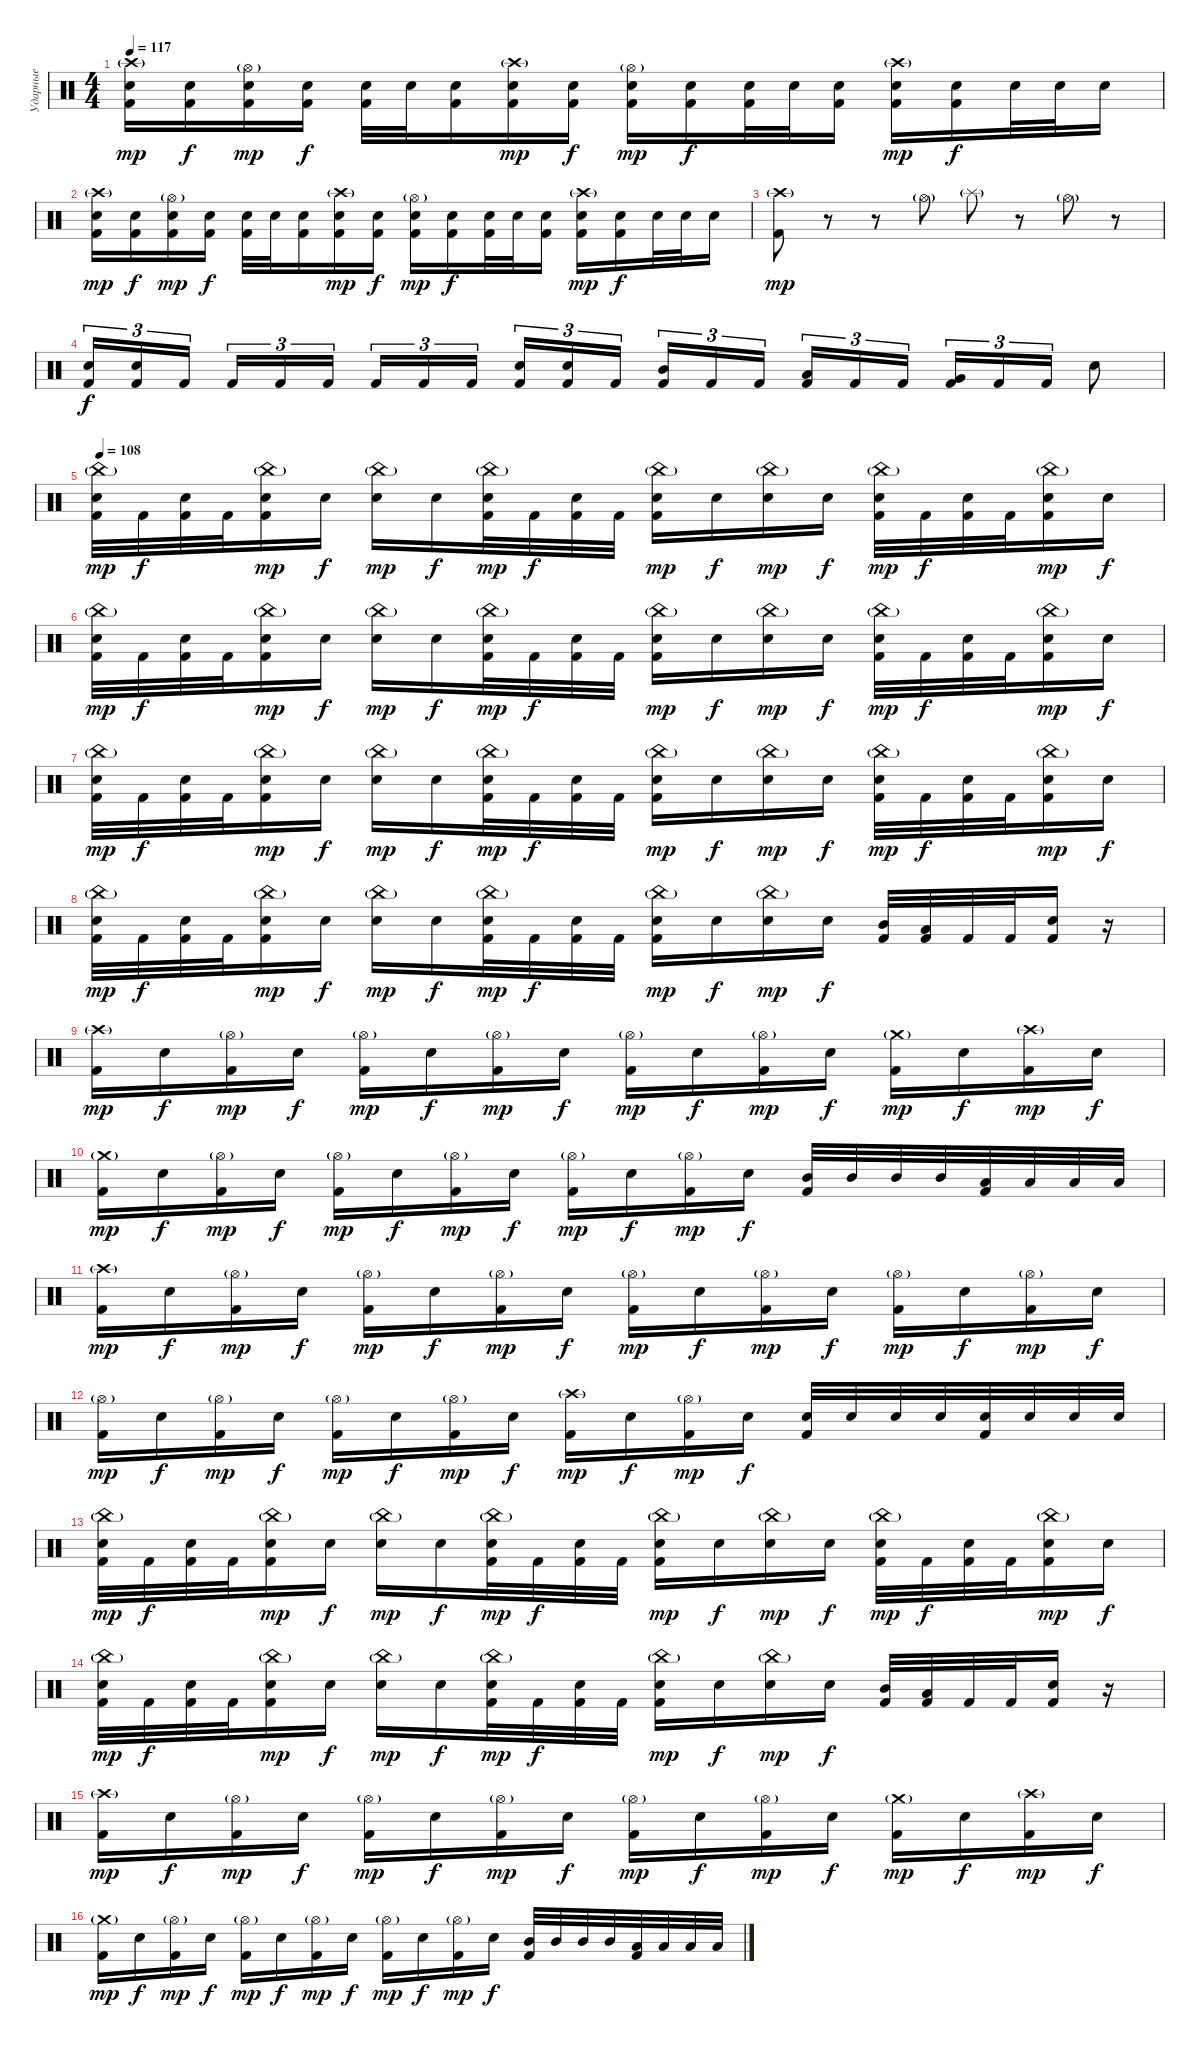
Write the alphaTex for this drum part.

\track ("Ударные" "Ударные") {instrument percussion}
\staff {score}
\articulation defaults
\ts (4 4)
\tempo 117
\clef neutral
\ks c
("Crash high (hit)"{g} "Electric Snare (hit)" "Kick (hit) 2").16{dy mp} ("Electric Snare (hit)" "Kick (hit) 2").16{dy f} ("Hi-Hat (open)"{g} "Electric Snare (hit)" "Kick (hit) 2").16{dy mp} ("Electric Snare (hit)" "Kick (hit) 2").16{dy f} ("Electric Snare (hit)" "Kick (hit) 2").32 "Electric Snare (hit)".32 ("Electric Snare (hit)" "Kick (hit) 2").16 ("Crash high (hit)"{g} "Electric Snare (hit)" "Kick (hit) 2").16{dy mp} ("Electric Snare (hit)" "Kick (hit) 2").16{dy f} ("Hi-Hat (open)"{g} "Electric Snare (hit)" "Kick (hit) 2").16{dy mp} ("Electric Snare (hit)" "Kick (hit) 2").16{dy f} ("Electric Snare (hit)" "Kick (hit) 2").32 "Electric Snare (hit)".32 ("Electric Snare (hit)" "Kick (hit) 2").16 ("Crash high (hit)"{g} "Electric Snare (hit)" "Kick (hit) 2").16{dy mp} ("Electric Snare (hit)" "Kick (hit) 2").16{dy f} "Electric Snare (hit)".32 "Electric Snare (hit)".32 "Electric Snare (hit)".16 |
("Crash high (hit)"{g} "Electric Snare (hit)" "Kick (hit) 2").16{dy mp} ("Electric Snare (hit)" "Kick (hit) 2").16{dy f} ("Hi-Hat (open)"{g} "Electric Snare (hit)" "Kick (hit) 2").16{dy mp} ("Electric Snare (hit)" "Kick (hit) 2").16{dy f} ("Electric Snare (hit)" "Kick (hit) 2").32 "Electric Snare (hit)".32 ("Electric Snare (hit)" "Kick (hit) 2").16 ("Crash high (hit)"{g} "Electric Snare (hit)" "Kick (hit) 2").16{dy mp} ("Electric Snare (hit)" "Kick (hit) 2").16{dy f} ("Hi-Hat (open)"{g} "Electric Snare (hit)" "Kick (hit) 2").16{dy mp} ("Electric Snare (hit)" "Kick (hit) 2").16{dy f} ("Electric Snare (hit)" "Kick (hit) 2").32 "Electric Snare (hit)".32 ("Electric Snare (hit)" "Kick (hit) 2").16 ("Crash high (hit)"{g} "Electric Snare (hit)" "Kick (hit) 2").16{dy mp} ("Electric Snare (hit)" "Kick (hit) 2").16{dy f} "Electric Snare (hit)".32 "Electric Snare (hit)".32 "Electric Snare (hit)".16 |
("Crash high (hit)"{g} "Kick (hit) 2").8{dy mp} r.8{volume 0} r.8 "Hi-Hat (open)"{g}.8{volume 16} "Splash (hit)"{g}.8 r.8 "Hi-Hat (open)"{g}.8 r.8 |
("Electric Snare (hit)" "Kick (hit) 2").16{tu (3 2) dy f} ("Electric Snare (hit)" "Kick (hit) 2").16{tu (3 2)} "Kick (hit) 2".16{tu (3 2)} "Kick (hit) 2".16{tu (3 2)} "Kick (hit) 2".16{tu (3 2)} "Kick (hit) 2".16{tu (3 2)} "Kick (hit) 2".16{tu (3 2)} "Kick (hit) 2".16{tu (3 2)} "Kick (hit) 2".16{tu (3 2)} ("Electric Snare (hit)" "Kick (hit) 2").16{tu (3 2)} ("Electric Snare (hit)" "Kick (hit) 2").16{tu (3 2)} "Kick (hit) 2".16{tu (3 2)} ("Mid Tom (hit)" "Kick (hit) 2").16{tu (3 2)} "Kick (hit) 2".16{tu (3 2)} "Kick (hit) 2".16{tu (3 2)} ("Low Tom (hit)" "Kick (hit) 2").16{tu (3 2)} "Kick (hit) 2".16{tu (3 2)} "Kick (hit) 2".16{tu (3 2)} ("Very Low Tom (hit)" "Kick (hit) 2").16{tu (3 2)} "Kick (hit) 2".16{tu (3 2)} "Kick (hit) 2".16{tu (3 2)} "Electric Snare (hit)".8 |
\tempo 108
("China (hit)"{g} "Electric Snare (hit)" "Kick (hit) 2").32{dy mp} "Kick (hit) 2".32{dy f} ("Electric Snare (hit)" "Kick (hit) 2").32 "Kick (hit) 2".32 ("China (hit)"{g} "Electric Snare (hit)" "Kick (hit) 2").16{dy mp} "Electric Snare (hit)".16{dy f} ("China (hit)"{g} "Electric Snare (hit)").16{dy mp} "Electric Snare (hit)".16{dy f} ("China (hit)"{g} "Electric Snare (hit)" "Kick (hit) 2").32{dy mp} "Kick (hit) 2".32{dy f} ("Electric Snare (hit)" "Kick (hit) 2").32 "Kick (hit) 2".32 ("China (hit)"{g} "Electric Snare (hit)" "Kick (hit) 2").16{dy mp} "Electric Snare (hit)".16{dy f} ("China (hit)"{g} "Electric Snare (hit)").16{dy mp} "Electric Snare (hit)".16{dy f} ("China (hit)"{g} "Electric Snare (hit)" "Kick (hit) 2").32{dy mp} "Kick (hit) 2".32{dy f} ("Electric Snare (hit)" "Kick (hit) 2").32 "Kick (hit) 2".32 ("China (hit)"{g} "Electric Snare (hit)" "Kick (hit) 2").16{dy mp} "Electric Snare (hit)".16{dy f} |
("China (hit)"{g} "Electric Snare (hit)" "Kick (hit) 2").32{dy mp} "Kick (hit) 2".32{dy f} ("Electric Snare (hit)" "Kick (hit) 2").32 "Kick (hit) 2".32 ("China (hit)"{g} "Electric Snare (hit)" "Kick (hit) 2").16{dy mp} "Electric Snare (hit)".16{dy f} ("China (hit)"{g} "Electric Snare (hit)").16{dy mp} "Electric Snare (hit)".16{dy f} ("China (hit)"{g} "Electric Snare (hit)" "Kick (hit) 2").32{dy mp} "Kick (hit) 2".32{dy f} ("Electric Snare (hit)" "Kick (hit) 2").32 "Kick (hit) 2".32 ("China (hit)"{g} "Electric Snare (hit)" "Kick (hit) 2").16{dy mp} "Electric Snare (hit)".16{dy f} ("China (hit)"{g} "Electric Snare (hit)").16{dy mp} "Electric Snare (hit)".16{dy f} ("China (hit)"{g} "Electric Snare (hit)" "Kick (hit) 2").32{dy mp} "Kick (hit) 2".32{dy f} ("Electric Snare (hit)" "Kick (hit) 2").32 "Kick (hit) 2".32 ("China (hit)"{g} "Electric Snare (hit)" "Kick (hit) 2").16{dy mp} "Electric Snare (hit)".16{dy f} |
("China (hit)"{g} "Electric Snare (hit)" "Kick (hit) 2").32{dy mp} "Kick (hit) 2".32{dy f} ("Electric Snare (hit)" "Kick (hit) 2").32 "Kick (hit) 2".32 ("China (hit)"{g} "Electric Snare (hit)" "Kick (hit) 2").16{dy mp} "Electric Snare (hit)".16{dy f} ("China (hit)"{g} "Electric Snare (hit)").16{dy mp} "Electric Snare (hit)".16{dy f} ("China (hit)"{g} "Electric Snare (hit)" "Kick (hit) 2").32{dy mp} "Kick (hit) 2".32{dy f} ("Electric Snare (hit)" "Kick (hit) 2").32 "Kick (hit) 2".32 ("China (hit)"{g} "Electric Snare (hit)" "Kick (hit) 2").16{dy mp} "Electric Snare (hit)".16{dy f} ("China (hit)"{g} "Electric Snare (hit)").16{dy mp} "Electric Snare (hit)".16{dy f} ("China (hit)"{g} "Electric Snare (hit)" "Kick (hit) 2").32{dy mp} "Kick (hit) 2".32{dy f} ("Electric Snare (hit)" "Kick (hit) 2").32 "Kick (hit) 2".32 ("China (hit)"{g} "Electric Snare (hit)" "Kick (hit) 2").16{dy mp} "Electric Snare (hit)".16{dy f} |
("China (hit)"{g} "Electric Snare (hit)" "Kick (hit) 2").32{dy mp} "Kick (hit) 2".32{dy f} ("Electric Snare (hit)" "Kick (hit) 2").32 "Kick (hit) 2".32 ("China (hit)"{g} "Electric Snare (hit)" "Kick (hit) 2").16{dy mp} "Electric Snare (hit)".16{dy f} ("China (hit)"{g} "Electric Snare (hit)").16{dy mp} "Electric Snare (hit)".16{dy f} ("China (hit)"{g} "Electric Snare (hit)" "Kick (hit) 2").32{dy mp} "Kick (hit) 2".32{dy f} ("Electric Snare (hit)" "Kick (hit) 2").32 "Kick (hit) 2".32 ("China (hit)"{g} "Electric Snare (hit)" "Kick (hit) 2").16{dy mp} "Electric Snare (hit)".16{dy f} ("China (hit)"{g} "Electric Snare (hit)").16{dy mp} "Electric Snare (hit)".16{dy f} ("Mid Tom (hit)" "Kick (hit) 2").32 ("Low Tom (hit)" "Kick (hit) 2").32 "Kick (hit) 2".32 "Kick (hit) 2".32 ("Electric Snare (hit)" "Kick (hit) 2").16 r.16 |
("Crash high (hit)"{g} "Kick (hit) 2").16{dy mp} "Electric Snare (hit)".16{dy f} ("Hi-Hat (open)"{g} "Kick (hit) 2").16{dy mp} "Electric Snare (hit)".16{dy f} ("Hi-Hat (open)"{g} "Kick (hit) 2").16{dy mp} "Electric Snare (hit)".16{dy f} ("Hi-Hat (open)"{g} "Kick (hit) 2").16{dy mp} "Electric Snare (hit)".16{dy f} ("Hi-Hat (open)"{g} "Kick (hit) 2").16{dy mp} "Electric Snare (hit)".16{dy f} ("Hi-Hat (open)"{g} "Kick (hit) 2").16{dy mp} "Electric Snare (hit)".16{dy f} ("Crash medium (hit)"{g} "Kick (hit) 2").16{dy mp} "Electric Snare (hit)".16{dy f} ("Crash high (hit)"{g} "Kick (hit) 2").16{dy mp} "Electric Snare (hit)".16{dy f} |
("Crash medium (hit)"{g} "Kick (hit) 2").16{dy mp} "Electric Snare (hit)".16{dy f} ("Hi-Hat (open)"{g} "Kick (hit) 2").16{dy mp} "Electric Snare (hit)".16{dy f} ("Hi-Hat (open)"{g} "Kick (hit) 2").16{dy mp} "Electric Snare (hit)".16{dy f} ("Hi-Hat (open)"{g} "Kick (hit) 2").16{dy mp} "Electric Snare (hit)".16{dy f} ("Hi-Hat (open)"{g} "Kick (hit) 2").16{dy mp} "Electric Snare (hit)".16{dy f} ("Hi-Hat (open)"{g} "Kick (hit) 2").16{dy mp} "Electric Snare (hit)".16{dy f} ("Mid Tom (hit)" "Kick (hit) 2").32 "Mid Tom (hit)".32 "Mid Tom (hit)".32 "Mid Tom (hit)".32 ("Low Tom (hit)" "Kick (hit) 2").32 "Low Tom (hit)".32 "Low Tom (hit)".32 "Low Tom (hit)".32 |
("Crash high (hit)"{g} "Kick (hit) 2").16{dy mp} "Electric Snare (hit)".16{dy f} ("Hi-Hat (open)"{g} "Kick (hit) 2").16{dy mp} "Electric Snare (hit)".16{dy f} ("Hi-Hat (open)"{g} "Kick (hit) 2").16{dy mp} "Electric Snare (hit)".16{dy f} ("Hi-Hat (open)"{g} "Kick (hit) 2").16{dy mp} "Electric Snare (hit)".16{dy f} ("Hi-Hat (open)"{g} "Kick (hit) 2").16{dy mp} "Electric Snare (hit)".16{dy f} ("Hi-Hat (open)"{g} "Kick (hit) 2").16{dy mp} "Electric Snare (hit)".16{dy f} ("Hi-Hat (open)"{g} "Kick (hit) 2").16{dy mp} "Electric Snare (hit)".16{dy f} ("Hi-Hat (open)"{g} "Kick (hit) 2").16{dy mp} "Electric Snare (hit)".16{dy f} |
("Hi-Hat (open)"{g} "Kick (hit) 2").16{dy mp} "Electric Snare (hit)".16{dy f} ("Hi-Hat (open)"{g} "Kick (hit) 2").16{dy mp} "Electric Snare (hit)".16{dy f} ("Hi-Hat (open)"{g} "Kick (hit) 2").16{dy mp} "Electric Snare (hit)".16{dy f} ("Hi-Hat (open)"{g} "Kick (hit) 2").16{dy mp} "Electric Snare (hit)".16{dy f} ("Crash high (hit)"{g} "Kick (hit) 2").16{dy mp} "Electric Snare (hit)".16{dy f} ("Hi-Hat (open)"{g} "Kick (hit) 2").16{dy mp} "Electric Snare (hit)".16{dy f} ("Electric Snare (hit)" "Kick (hit) 2").32 "Electric Snare (hit)".32 "Electric Snare (hit)".32 "Electric Snare (hit)".32 ("Electric Snare (hit)" "Kick (hit) 2").32 "Electric Snare (hit)".32 "Electric Snare (hit)".32 "Electric Snare (hit)".32 |
("China (hit)"{g} "Electric Snare (hit)" "Kick (hit) 2").32{dy mp} "Kick (hit) 2".32{dy f} ("Electric Snare (hit)" "Kick (hit) 2").32 "Kick (hit) 2".32 ("China (hit)"{g} "Electric Snare (hit)" "Kick (hit) 2").16{dy mp} "Electric Snare (hit)".16{dy f} ("China (hit)"{g} "Electric Snare (hit)").16{dy mp} "Electric Snare (hit)".16{dy f} ("China (hit)"{g} "Electric Snare (hit)" "Kick (hit) 2").32{dy mp} "Kick (hit) 2".32{dy f} ("Electric Snare (hit)" "Kick (hit) 2").32 "Kick (hit) 2".32 ("China (hit)"{g} "Electric Snare (hit)" "Kick (hit) 2").16{dy mp} "Electric Snare (hit)".16{dy f} ("China (hit)"{g} "Electric Snare (hit)").16{dy mp} "Electric Snare (hit)".16{dy f} ("China (hit)"{g} "Electric Snare (hit)" "Kick (hit) 2").32{dy mp} "Kick (hit) 2".32{dy f} ("Electric Snare (hit)" "Kick (hit) 2").32 "Kick (hit) 2".32 ("China (hit)"{g} "Electric Snare (hit)" "Kick (hit) 2").16{dy mp} "Electric Snare (hit)".16{dy f} |
("China (hit)"{g} "Electric Snare (hit)" "Kick (hit) 2").32{dy mp} "Kick (hit) 2".32{dy f} ("Electric Snare (hit)" "Kick (hit) 2").32 "Kick (hit) 2".32 ("China (hit)"{g} "Electric Snare (hit)" "Kick (hit) 2").16{dy mp} "Electric Snare (hit)".16{dy f} ("China (hit)"{g} "Electric Snare (hit)").16{dy mp} "Electric Snare (hit)".16{dy f} ("China (hit)"{g} "Electric Snare (hit)" "Kick (hit) 2").32{dy mp} "Kick (hit) 2".32{dy f} ("Electric Snare (hit)" "Kick (hit) 2").32 "Kick (hit) 2".32 ("China (hit)"{g} "Electric Snare (hit)" "Kick (hit) 2").16{dy mp} "Electric Snare (hit)".16{dy f} ("China (hit)"{g} "Electric Snare (hit)").16{dy mp} "Electric Snare (hit)".16{dy f} ("Mid Tom (hit)" "Kick (hit) 2").32 ("Low Tom (hit)" "Kick (hit) 2").32 "Kick (hit) 2".32 "Kick (hit) 2".32 ("Electric Snare (hit)" "Kick (hit) 2").16 r.16 |
("Crash high (hit)"{g} "Kick (hit) 2").16{dy mp} "Electric Snare (hit)".16{dy f} ("Hi-Hat (open)"{g} "Kick (hit) 2").16{dy mp} "Electric Snare (hit)".16{dy f} ("Hi-Hat (open)"{g} "Kick (hit) 2").16{dy mp} "Electric Snare (hit)".16{dy f} ("Hi-Hat (open)"{g} "Kick (hit) 2").16{dy mp} "Electric Snare (hit)".16{dy f} ("Hi-Hat (open)"{g} "Kick (hit) 2").16{dy mp} "Electric Snare (hit)".16{dy f} ("Hi-Hat (open)"{g} "Kick (hit) 2").16{dy mp} "Electric Snare (hit)".16{dy f} ("Crash medium (hit)"{g} "Kick (hit) 2").16{dy mp} "Electric Snare (hit)".16{dy f} ("Crash high (hit)"{g} "Kick (hit) 2").16{dy mp} "Electric Snare (hit)".16{dy f} |
("Crash medium (hit)"{g} "Kick (hit) 2").16{dy mp} "Electric Snare (hit)".16{dy f} ("Hi-Hat (open)"{g} "Kick (hit) 2").16{dy mp} "Electric Snare (hit)".16{dy f} ("Hi-Hat (open)"{g} "Kick (hit) 2").16{dy mp} "Electric Snare (hit)".16{dy f} ("Hi-Hat (open)"{g} "Kick (hit) 2").16{dy mp} "Electric Snare (hit)".16{dy f} ("Hi-Hat (open)"{g} "Kick (hit) 2").16{dy mp} "Electric Snare (hit)".16{dy f} ("Hi-Hat (open)"{g} "Kick (hit) 2").16{dy mp} "Electric Snare (hit)".16{dy f} ("Mid Tom (hit)" "Kick (hit) 2").32 "Mid Tom (hit)".32 "Mid Tom (hit)".32 "Mid Tom (hit)".32 ("Low Tom (hit)" "Kick (hit) 2").32 "Low Tom (hit)".32 "Low Tom (hit)".32 "Low Tom (hit)".32
